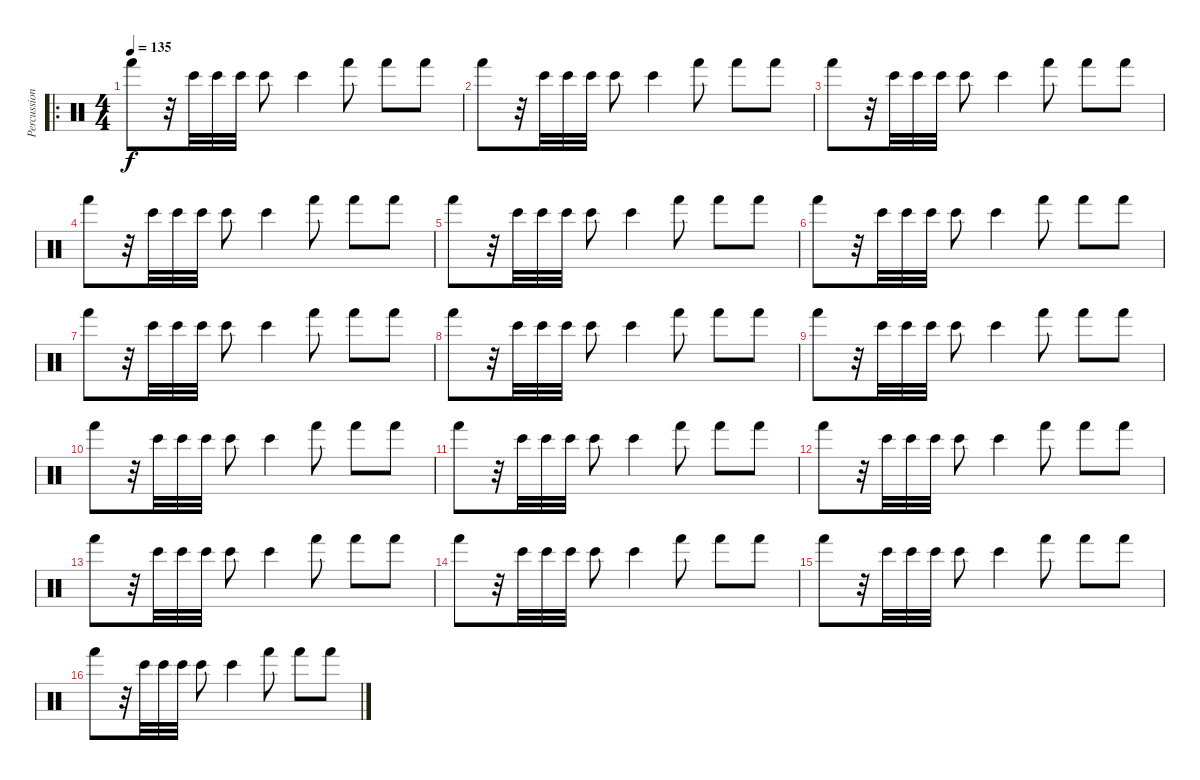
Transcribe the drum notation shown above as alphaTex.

\track ("Percussions" "Percussion") {instrument percussion}
\staff {score}
\articulation defaults
\ro
\ts (4 4)
\tempo 135
\clef neutral
\ks c "Hand (hit)".8{dy f}
r.32 "Bongo High (hit)".32 "Bongo High (hit)".32 "Bongo High (hit)".32 "Bongo High (hit)".8 "Bongo High (hit)".4 "Hand (hit)".8 "Hand (hit)".8 "Hand (hit)".8 |
"Hand (hit)".8 r.32 "Bongo High (hit)".32 "Bongo High (hit)".32 "Bongo High (hit)".32 "Bongo High (hit)".8 "Bongo High (hit)".4 "Hand (hit)".8 "Hand (hit)".8 "Hand (hit)".8 |
"Hand (hit)".8 r.32 "Bongo High (hit)".32 "Bongo High (hit)".32 "Bongo High (hit)".32 "Bongo High (hit)".8 "Bongo High (hit)".4 "Hand (hit)".8 "Hand (hit)".8 "Hand (hit)".8 |
"Hand (hit)".8 r.32 "Bongo High (hit)".32 "Bongo High (hit)".32 "Bongo High (hit)".32 "Bongo High (hit)".8 "Bongo High (hit)".4 "Hand (hit)".8 "Hand (hit)".8 "Hand (hit)".8 |
"Hand (hit)".8 r.32 "Bongo High (hit)".32 "Bongo High (hit)".32 "Bongo High (hit)".32 "Bongo High (hit)".8 "Bongo High (hit)".4 "Hand (hit)".8 "Hand (hit)".8 "Hand (hit)".8 |
"Hand (hit)".8 r.32 "Bongo High (hit)".32 "Bongo High (hit)".32 "Bongo High (hit)".32 "Bongo High (hit)".8 "Bongo High (hit)".4 "Hand (hit)".8 "Hand (hit)".8 "Hand (hit)".8 |
"Hand (hit)".8 r.32 "Bongo High (hit)".32 "Bongo High (hit)".32 "Bongo High (hit)".32 "Bongo High (hit)".8 "Bongo High (hit)".4 "Hand (hit)".8 "Hand (hit)".8 "Hand (hit)".8 |
"Hand (hit)".8 r.32 "Bongo High (hit)".32 "Bongo High (hit)".32 "Bongo High (hit)".32 "Bongo High (hit)".8 "Bongo High (hit)".4 "Hand (hit)".8 "Hand (hit)".8 "Hand (hit)".8 |
"Hand (hit)".8 r.32 "Bongo High (hit)".32 "Bongo High (hit)".32 "Bongo High (hit)".32 "Bongo High (hit)".8 "Bongo High (hit)".4 "Hand (hit)".8 "Hand (hit)".8 "Hand (hit)".8 |
"Hand (hit)".8 r.32 "Bongo High (hit)".32 "Bongo High (hit)".32 "Bongo High (hit)".32 "Bongo High (hit)".8 "Bongo High (hit)".4 "Hand (hit)".8 "Hand (hit)".8 "Hand (hit)".8 |
"Hand (hit)".8 r.32 "Bongo High (hit)".32 "Bongo High (hit)".32 "Bongo High (hit)".32 "Bongo High (hit)".8 "Bongo High (hit)".4 "Hand (hit)".8 "Hand (hit)".8 "Hand (hit)".8 |
"Hand (hit)".8 r.32 "Bongo High (hit)".32 "Bongo High (hit)".32 "Bongo High (hit)".32 "Bongo High (hit)".8 "Bongo High (hit)".4 "Hand (hit)".8 "Hand (hit)".8 "Hand (hit)".8 |
"Hand (hit)".8 r.32 "Bongo High (hit)".32 "Bongo High (hit)".32 "Bongo High (hit)".32 "Bongo High (hit)".8 "Bongo High (hit)".4 "Hand (hit)".8 "Hand (hit)".8 "Hand (hit)".8 |
"Hand (hit)".8 r.32 "Bongo High (hit)".32 "Bongo High (hit)".32 "Bongo High (hit)".32 "Bongo High (hit)".8 "Bongo High (hit)".4 "Hand (hit)".8 "Hand (hit)".8 "Hand (hit)".8 |
"Hand (hit)".8 r.32 "Bongo High (hit)".32 "Bongo High (hit)".32 "Bongo High (hit)".32 "Bongo High (hit)".8 "Bongo High (hit)".4 "Hand (hit)".8 "Hand (hit)".8 "Hand (hit)".8 |
"Hand (hit)".8 r.32 "Bongo High (hit)".32 "Bongo High (hit)".32 "Bongo High (hit)".32 "Bongo High (hit)".8 "Bongo High (hit)".4 "Hand (hit)".8 "Hand (hit)".8 "Hand (hit)".8
